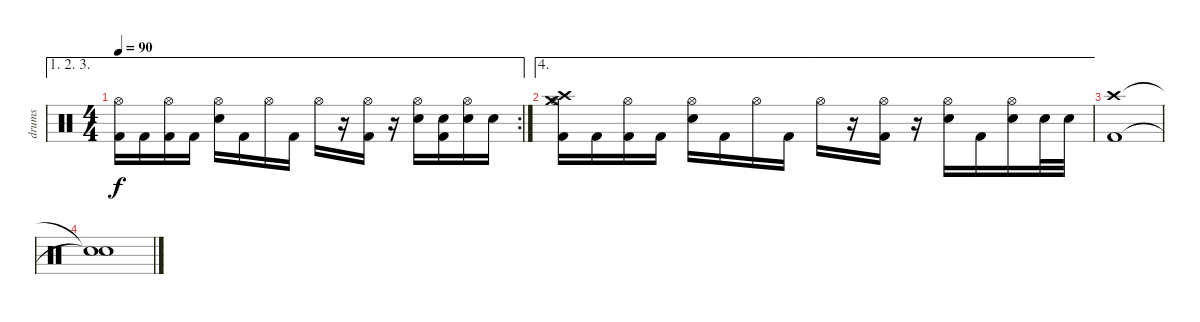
\track ("drums" "drums") {instrument percussion}
\staff {score}
\articulation defaults
\ae (1 2 3)
\rc 2
\ts (4 4)
\tempo 90
\clef neutral
\ks c
("Hi-Hat (open)" "Kick (hit) 2").16{dy f} "Kick (hit) 2".16 ("Hi-Hat (open)" "Kick (hit) 2").16 "Kick (hit) 2".16 ("Hi-Hat (open)" "Electric Snare (hit)").16 "Kick (hit) 2".16 "Hi-Hat (open)".16 "Kick (hit) 2".16 "Hi-Hat (open)".16 r.16 ("Hi-Hat (open)" "Kick (hit) 2").16 r.16 ("Hi-Hat (open)" "Electric Snare (hit)").16 ("Electric Snare (hit)" "Kick (hit) 2").16 ("Hi-Hat (open)" "Electric Snare (hit)").16 "Electric Snare (hit)".16 |
\ae 4
("Crash high (hit)" "Crash medium (hit)" "Hi-Hat (open)" "Kick (hit) 2").16 "Kick (hit) 2".16 ("Hi-Hat (open)" "Kick (hit) 2").16 "Kick (hit) 2".16 ("Hi-Hat (open)" "Electric Snare (hit)").16 "Kick (hit) 2".16 "Hi-Hat (open)".16 "Kick (hit) 2".16 "Hi-Hat (open)".16 r.16 ("Hi-Hat (open)" "Kick (hit) 2").16 r.16 ("Hi-Hat (open)" "Electric Snare (hit)").16 "Kick (hit) 2".16 ("Hi-Hat (open)" "Electric Snare (hit)").16 "Electric Snare (hit)".32 "Electric Snare (hit)".32 |
("Crash high (hit)" "Kick (hit) 2").1 |
("Snare (hit)"{t} "Snare (hit)"{t}).1
